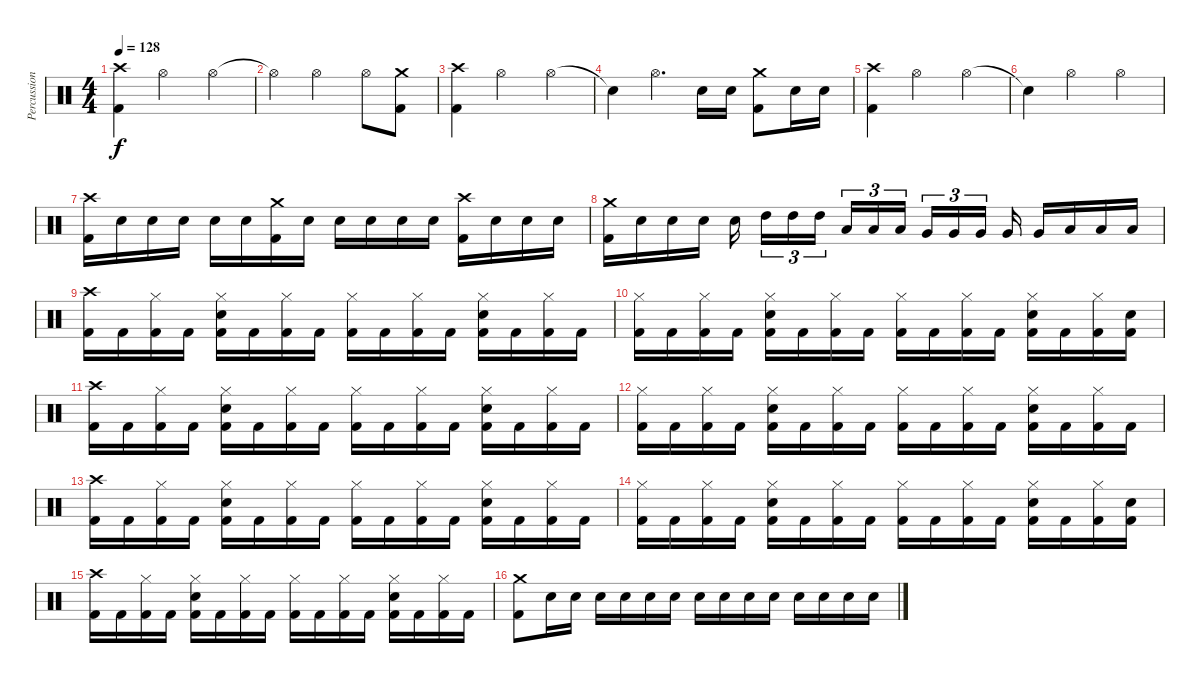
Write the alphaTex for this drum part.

\track ("Percussion" "Percussion") {instrument percussion}
\staff {score}
\articulation defaults
\ts (4 4)
\tempo 128
\clef neutral
\ks c
("Crash high (hit)" "Kick (hit) 2").4{dy f} "Hi-Hat (open)".2 "Hi-Hat (open)".4 |
"Hi-Hat (open)"{t}.4 "Hi-Hat (open)".2 "Hi-Hat (open)".8 ("Crash medium (hit)" "Kick (hit) 2").8 |
("Crash high (hit)" "Kick (hit) 2").4 "Hi-Hat (open)".2 "Hi-Hat (open)".4 |
"Snare (hit)"{t}.4 "Hi-Hat (open)".4{d} "Electric Snare (hit)".16 "Electric Snare (hit)".16 ("Crash medium (hit)" "Kick (hit) 2").8 "Electric Snare (hit)".16 "Electric Snare (hit)".16 |
("Crash high (hit)" "Kick (hit) 2").4 "Hi-Hat (open)".2 "Hi-Hat (open)".4 |
"Snare (hit)"{t}.4 "Hi-Hat (open)".2 "Hi-Hat (open)".4 |
("Crash high (hit)" "Kick (hit) 2").16 "Electric Snare (hit)".16 "Electric Snare (hit)".16 "Electric Snare (hit)".16 "Electric Snare (hit)".16 "Electric Snare (hit)".16 ("Crash medium (hit)" "Kick (hit) 2").16 "Electric Snare (hit)".16 "Electric Snare (hit)".16 "Electric Snare (hit)".16 "Electric Snare (hit)".16 "Electric Snare (hit)".16 ("Crash high (hit)" "Kick (hit) 2").16 "Electric Snare (hit)".16 "Electric Snare (hit)".16 "Electric Snare (hit)".16 |
("Crash medium (hit)" "Kick (hit) 2").16 "Electric Snare (hit)".16 "Electric Snare (hit)".16 "Electric Snare (hit)".16 "Electric Snare (hit)".16{beam splitsecondary} "High Tom (hit)".16{tu (3 2)} "High Tom (hit)".16{tu (3 2)} "High Tom (hit)".16{tu (3 2) beam splitsecondary} "Low Tom (hit)".16{tu (3 2)} "Low Tom (hit)".16{tu (3 2)} "Low Tom (hit)".16{tu (3 2) beam splitsecondary} "Very Low Tom (hit)".16{tu (3 2)} "Very Low Tom (hit)".16{tu (3 2)} "Very Low Tom (hit)".16{tu (3 2) beam splitsecondary} "Very Low Tom (hit)".16 "Very Low Tom (hit)".16 "Low Floor Tom (hit)".16 "Low Floor Tom (hit)".16 "Low Floor Tom (hit)".16 |
("Crash high (hit)" "Kick (hit) 2").16 "Kick (hit) 2".16 ("Hi-Hat (closed)" "Kick (hit) 2").16 "Kick (hit) 2".16 ("Hi-Hat (closed)" "Electric Snare (hit)" "Kick (hit) 2").16 "Kick (hit) 2".16 ("Hi-Hat (closed)" "Kick (hit) 2").16 "Kick (hit) 2".16 ("Hi-Hat (closed)" "Kick (hit) 2").16 "Kick (hit) 2".16 ("Hi-Hat (closed)" "Kick (hit) 2").16 "Kick (hit) 2".16 ("Hi-Hat (closed)" "Electric Snare (hit)" "Kick (hit) 2").16 "Kick (hit) 2".16 ("Hi-Hat (closed)" "Kick (hit) 2").16 "Kick (hit) 2".16 |
("Hi-Hat (closed)" "Kick (hit) 2").16 "Kick (hit) 2".16 ("Hi-Hat (closed)" "Kick (hit) 2").16 "Kick (hit) 2".16 ("Hi-Hat (closed)" "Electric Snare (hit)" "Kick (hit) 2").16 "Kick (hit) 2".16 ("Hi-Hat (closed)" "Kick (hit) 2").16 "Kick (hit) 2".16 ("Hi-Hat (closed)" "Kick (hit) 2").16 "Kick (hit) 2".16 ("Hi-Hat (closed)" "Kick (hit) 2").16 "Kick (hit) 2".16 ("Hi-Hat (closed)" "Electric Snare (hit)" "Kick (hit) 2").16 "Kick (hit) 2".16 ("Hi-Hat (closed)" "Kick (hit) 2").16 ("Electric Snare (hit)" "Kick (hit) 2").16 |
("Crash high (hit)" "Kick (hit) 2").16 "Kick (hit) 2".16 ("Hi-Hat (closed)" "Kick (hit) 2").16 "Kick (hit) 2".16 ("Hi-Hat (closed)" "Electric Snare (hit)" "Kick (hit) 2").16 "Kick (hit) 2".16 ("Hi-Hat (closed)" "Kick (hit) 2").16 "Kick (hit) 2".16 ("Hi-Hat (closed)" "Kick (hit) 2").16 "Kick (hit) 2".16 ("Hi-Hat (closed)" "Kick (hit) 2").16 "Kick (hit) 2".16 ("Hi-Hat (closed)" "Electric Snare (hit)" "Kick (hit) 2").16 "Kick (hit) 2".16 ("Hi-Hat (closed)" "Kick (hit) 2").16 "Kick (hit) 2".16 |
("Hi-Hat (closed)" "Kick (hit) 2").16 "Kick (hit) 2".16 ("Hi-Hat (closed)" "Kick (hit) 2").16 "Kick (hit) 2".16 ("Hi-Hat (closed)" "Electric Snare (hit)" "Kick (hit) 2").16 "Kick (hit) 2".16 ("Hi-Hat (closed)" "Kick (hit) 2").16 "Kick (hit) 2".16 ("Hi-Hat (closed)" "Kick (hit) 2").16 "Kick (hit) 2".16 ("Hi-Hat (closed)" "Kick (hit) 2").16 "Kick (hit) 2".16 ("Hi-Hat (closed)" "Electric Snare (hit)" "Kick (hit) 2").16 "Kick (hit) 2".16 ("Hi-Hat (closed)" "Kick (hit) 2").16 "Kick (hit) 2".16 |
("Crash high (hit)" "Kick (hit) 2").16 "Kick (hit) 2".16 ("Hi-Hat (closed)" "Kick (hit) 2").16 "Kick (hit) 2".16 ("Hi-Hat (closed)" "Electric Snare (hit)" "Kick (hit) 2").16 "Kick (hit) 2".16 ("Hi-Hat (closed)" "Kick (hit) 2").16 "Kick (hit) 2".16 ("Hi-Hat (closed)" "Kick (hit) 2").16 "Kick (hit) 2".16 ("Hi-Hat (closed)" "Kick (hit) 2").16 "Kick (hit) 2".16 ("Hi-Hat (closed)" "Electric Snare (hit)" "Kick (hit) 2").16 "Kick (hit) 2".16 ("Hi-Hat (closed)" "Kick (hit) 2").16 "Kick (hit) 2".16 |
("Hi-Hat (closed)" "Kick (hit) 2").16 "Kick (hit) 2".16 ("Hi-Hat (closed)" "Kick (hit) 2").16 "Kick (hit) 2".16 ("Hi-Hat (closed)" "Electric Snare (hit)" "Kick (hit) 2").16 "Kick (hit) 2".16 ("Hi-Hat (closed)" "Kick (hit) 2").16 "Kick (hit) 2".16 ("Hi-Hat (closed)" "Kick (hit) 2").16 "Kick (hit) 2".16 ("Hi-Hat (closed)" "Kick (hit) 2").16 "Kick (hit) 2".16 ("Hi-Hat (closed)" "Electric Snare (hit)" "Kick (hit) 2").16 "Kick (hit) 2".16 ("Hi-Hat (closed)" "Kick (hit) 2").16 ("Electric Snare (hit)" "Kick (hit) 2").16 |
("Crash high (hit)" "Kick (hit) 2").16 "Kick (hit) 2".16 ("Hi-Hat (closed)" "Kick (hit) 2").16 "Kick (hit) 2".16 ("Hi-Hat (closed)" "Electric Snare (hit)" "Kick (hit) 2").16 "Kick (hit) 2".16 ("Hi-Hat (closed)" "Kick (hit) 2").16 "Kick (hit) 2".16 ("Hi-Hat (closed)" "Kick (hit) 2").16 "Kick (hit) 2".16 ("Hi-Hat (closed)" "Kick (hit) 2").16 "Kick (hit) 2".16 ("Hi-Hat (closed)" "Electric Snare (hit)" "Kick (hit) 2").16 "Kick (hit) 2".16 ("Hi-Hat (closed)" "Kick (hit) 2").16 "Kick (hit) 2".16 |
("Crash medium (hit)" "Kick (hit) 2").8 "Electric Snare (hit)".16 "Electric Snare (hit)".16 "Electric Snare (hit)".16 "Electric Snare (hit)".16 "Electric Snare (hit)".16 "Electric Snare (hit)".16 "Electric Snare (hit)".16 "Electric Snare (hit)".16 "Electric Snare (hit)".16 "Electric Snare (hit)".16 "Electric Snare (hit)".16 "Electric Snare (hit)".16 "Electric Snare (hit)".16 "Electric Snare (hit)".16
